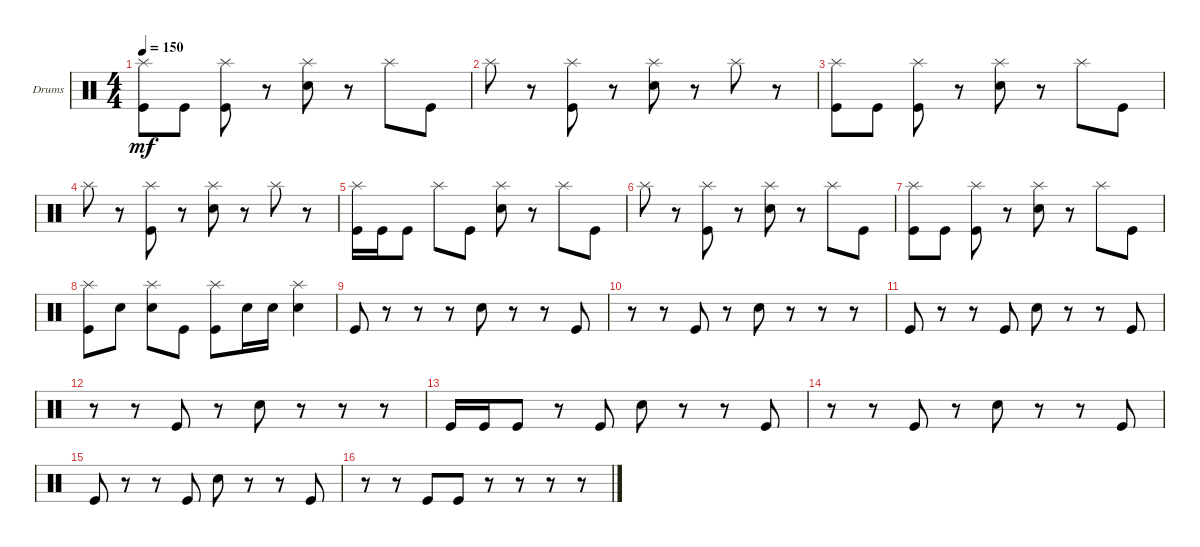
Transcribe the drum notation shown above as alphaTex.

\bracketExtendMode groupsimilarinstruments
\firstSystemTrackNameOrientation horizontal
\otherSystemsTrackNameOrientation horizontal
\track ("Drumkit" "Drums") {instrument percussion}
\staff {score}
\articulation defaults
\ts (4 4)
\tempo 150
\clef neutral
\ks c
("Kick (hit)" "Splash (hit)").8{dy mf} "Kick (hit)".8 ("Kick (hit)" "Splash (hit)").8 r.8 ("Snare (hit) 2" "Splash (hit)").8 r.8 "Splash (hit)".8 "Kick (hit)".8 |
"Splash (hit)".8 r.8 ("Kick (hit)" "Splash (hit)").8 r.8 ("Snare (hit) 2" "Splash (hit)").8 r.8 "Splash (hit)".8 r.8 |
("Kick (hit)" "Splash (hit)").8 "Kick (hit)".8 ("Kick (hit)" "Splash (hit)").8 r.8 ("Snare (hit) 2" "Splash (hit)").8 r.8 "Splash (hit)".8 "Kick (hit)".8 |
"Splash (hit)".8 r.8 ("Kick (hit)" "Splash (hit)").8 r.8 ("Snare (hit) 2" "Splash (hit)").8 r.8 "Splash (hit)".8 r.8 |
("Kick (hit)" "Splash (hit)").16 "Kick (hit)".16 "Kick (hit)".8 "Splash (hit)".8 "Kick (hit)".8 ("Snare (hit) 2" "Splash (hit)").8 r.8 "Splash (hit)".8 "Kick (hit)".8 |
"Splash (hit)".8 r.8 ("Kick (hit)" "Splash (hit)").8 r.8 ("Snare (hit) 2" "Splash (hit)").8 r.8 "Splash (hit)".8 "Kick (hit)".8 |
("Kick (hit)" "Splash (hit)").8 "Kick (hit)".8 ("Kick (hit)" "Splash (hit)").8 r.8 ("Snare (hit) 2" "Splash (hit)").8 r.8 "Splash (hit)".8 "Kick (hit)".8 |
("Splash (hit)" "Kick (hit)").8 "Snare (hit) 2".8 ("Splash (hit)" "Snare (hit) 2").8 "Kick (hit)".8 ("Splash (hit)" "Kick (hit)").8 "Snare (hit) 2".16 "Snare (hit) 2".16 ("Snare (hit) 2" "Splash (hit)").4 |
"Kick (hit)".8 r.8 r.8 r.8 "Snare (hit) 2".8 r.8 r.8 "Kick (hit)".8 |
r.8 r.8 "Kick (hit)".8 r.8 "Snare (hit) 2".8 r.8 r.8 r.8 |
"Kick (hit)".8 r.8 r.8 "Kick (hit)".8 "Snare (hit) 2".8 r.8 r.8 "Kick (hit)".8 |
r.8 r.8 "Kick (hit)".8 r.8 "Snare (hit) 2".8 r.8 r.8 r.8 |
"Kick (hit)".16 "Kick (hit)".16 "Kick (hit)".8 r.8 "Kick (hit)".8 "Snare (hit) 2".8 r.8 r.8 "Kick (hit)".8 |
r.8 r.8 "Kick (hit)".8 r.8 "Snare (hit) 2".8 r.8 r.8 "Kick (hit)".8 |
"Kick (hit)".8 r.8 r.8 "Kick (hit)".8 "Snare (hit) 2".8 r.8 r.8 "Kick (hit)".8 |
r.8 r.8 "Kick (hit)".8 "Kick (hit)".8 r.8 r.8 r.8 r.8
